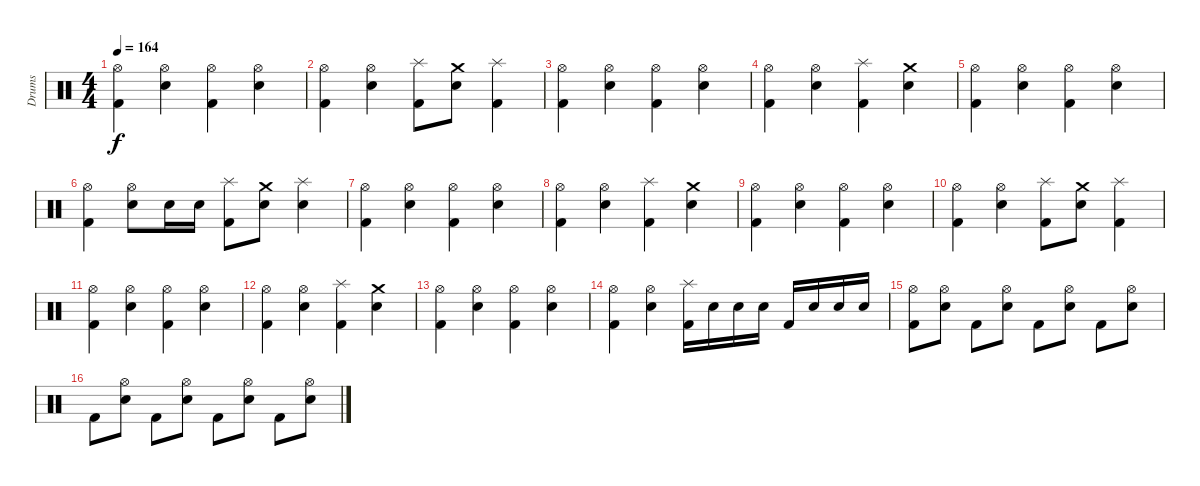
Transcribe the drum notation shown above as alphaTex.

\track ("Drums " "Drums ") {instrument percussion}
\staff {score}
\articulation defaults
\ts (4 4)
\tempo 164
\clef neutral
\ks c
("Hi-Hat (open)" "Kick (hit) 2").4{dy f} ("Snare (hit) 2" "Hi-Hat (open)").4 ("Kick (hit) 2" "Hi-Hat (open)").4 ("Hi-Hat (open)" "Snare (hit) 2").4 |
("Kick (hit) 2" "Hi-Hat (open)").4 ("Snare (hit) 2" "Hi-Hat (open)").4 ("Kick (hit) 2" "Splash (hit)").8 ("Snare (hit) 2" "Crash medium (hit)").8 ("Kick (hit) 2" "Splash (hit)").4 |
("Hi-Hat (open)" "Kick (hit) 2").4 ("Hi-Hat (open)" "Snare (hit) 2").4 ("Kick (hit) 2" "Hi-Hat (open)").4 ("Snare (hit) 2" "Hi-Hat (open)").4 |
("Kick (hit) 2" "Hi-Hat (open)").4 ("Hi-Hat (open)" "Snare (hit) 2").4 ("Kick (hit) 2" "Splash (hit)").4 ("Snare (hit) 2" "Crash medium (hit)").4 |
("Hi-Hat (open)" "Kick (hit) 2").4 ("Snare (hit) 2" "Hi-Hat (open)").4 ("Kick (hit) 2" "Hi-Hat (open)").4 ("Hi-Hat (open)" "Snare (hit) 2").4 |
("Kick (hit) 2" "Hi-Hat (open)").4 ("Hi-Hat (open)" "Snare (hit) 2").8 "Snare (hit) 2".16 "Snare (hit) 2".16 ("Kick (hit) 2" "Splash (hit)").8 ("Snare (hit) 2" "Crash medium (hit)").8 ("Splash (hit)" "Snare (hit) 2").4 |
("Hi-Hat (open)" "Kick (hit) 2").4 ("Hi-Hat (open)" "Snare (hit) 2").4 ("Kick (hit) 2" "Hi-Hat (open)").4 ("Snare (hit) 2" "Hi-Hat (open)").4 |
("Kick (hit) 2" "Hi-Hat (open)").4 ("Hi-Hat (open)" "Snare (hit) 2").4 ("Kick (hit) 2" "Splash (hit)").4 ("Snare (hit) 2" "Crash medium (hit)").4 |
("Hi-Hat (open)" "Kick (hit) 2").4 ("Snare (hit) 2" "Hi-Hat (open)").4 ("Kick (hit) 2" "Hi-Hat (open)").4 ("Hi-Hat (open)" "Snare (hit) 2").4 |
("Kick (hit) 2" "Hi-Hat (open)").4 ("Snare (hit) 2" "Hi-Hat (open)").4 ("Kick (hit) 2" "Splash (hit)").8 ("Snare (hit) 2" "Crash medium (hit)").8 ("Kick (hit) 2" "Splash (hit)").4 |
("Kick (hit) 2" "Hi-Hat (open)").4 ("Hi-Hat (open)" "Snare (hit) 2").4 ("Kick (hit) 2" "Hi-Hat (open)").4 ("Snare (hit) 2" "Hi-Hat (open)").4 |
("Kick (hit) 2" "Hi-Hat (open)").4 ("Hi-Hat (open)" "Snare (hit) 2").4 ("Kick (hit) 2" "Splash (hit)").4 ("Snare (hit) 2" "Crash medium (hit)").4 |
("Hi-Hat (open)" "Kick (hit) 2").4 ("Snare (hit) 2" "Hi-Hat (open)").4 ("Kick (hit) 2" "Hi-Hat (open)").4 ("Hi-Hat (open)" "Snare (hit) 2").4 |
("Kick (hit) 2" "Hi-Hat (open)").4 ("Snare (hit) 2" "Hi-Hat (open)").4 ("Kick (hit) 2" "Splash (hit)").16 "Snare (hit) 2".16 "Snare (hit) 2".16 "Snare (hit) 2".16 "Kick (hit) 2".16 "Snare (hit) 2".16 "Snare (hit) 2".16 "Snare (hit) 2".16 |
("Hi-Hat (open)" "Kick (hit) 2").8 ("Snare (hit) 2" "Hi-Hat (open)").8 "Kick (hit) 2".8 ("Snare (hit) 2" "Hi-Hat (open)").8 "Kick (hit) 2".8 ("Snare (hit) 2" "Hi-Hat (open)").8 "Kick (hit) 2".8 ("Snare (hit) 2" "Hi-Hat (open)").8 |
"Kick (hit) 2".8 ("Snare (hit) 2" "Hi-Hat (open)").8 "Kick (hit) 2".8 ("Snare (hit) 2" "Hi-Hat (open)").8 "Kick (hit) 2".8 ("Snare (hit) 2" "Hi-Hat (open)").8 "Kick (hit) 2".8 ("Snare (hit) 2" "Hi-Hat (open)").8
